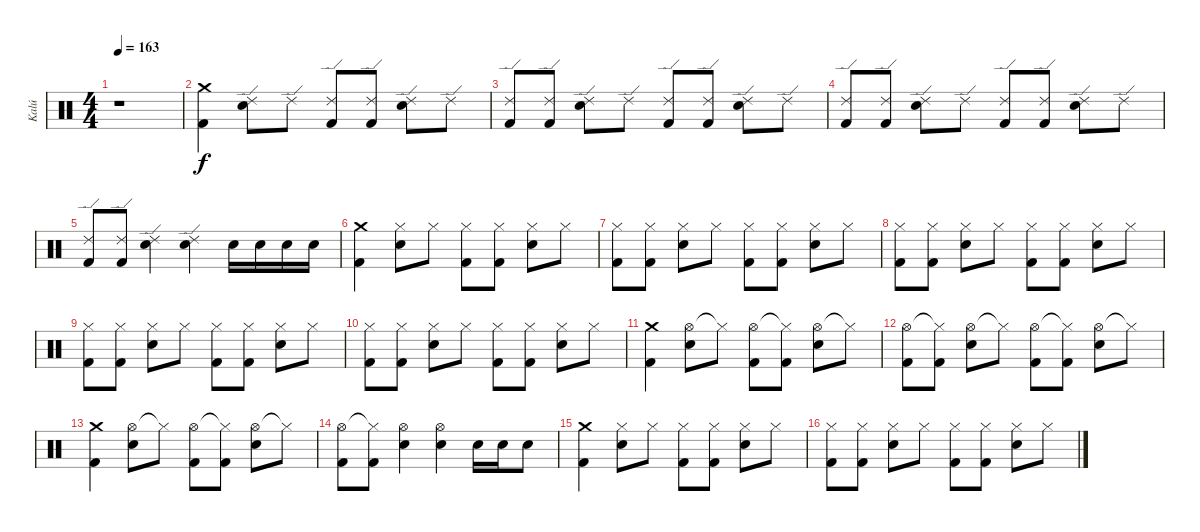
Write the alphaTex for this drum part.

\track ("Kalú" "Kalú") {instrument percussion}
\staff {score}
\articulation defaults
\ts (4 4)
\tempo 163
\clef neutral
\ks c
r.1{dy f} |
("Crash medium (hit)" "Kick (hit) 2").4 ("Ride (edge) 2" "Snare (hit) 2").8 "Ride (edge) 2".8 ("Ride (edge) 2" "Kick (hit) 2").8 ("Ride (edge) 2" "Kick (hit) 2").8 ("Ride (edge) 2" "Snare (hit) 2").8 "Ride (edge) 2".8 |
("Ride (edge) 2" "Kick (hit) 2").8 ("Ride (edge) 2" "Kick (hit) 2").8 ("Ride (edge) 2" "Snare (hit) 2").8 "Ride (edge) 2".8 ("Ride (edge) 2" "Kick (hit) 2").8 ("Ride (edge) 2" "Kick (hit) 2").8 ("Ride (edge) 2" "Snare (hit) 2").8 "Ride (edge) 2".8 |
("Ride (edge) 2" "Kick (hit) 2").8 ("Ride (edge) 2" "Kick (hit) 2").8 ("Ride (edge) 2" "Snare (hit) 2").8 "Ride (edge) 2".8 ("Ride (edge) 2" "Kick (hit) 2").8 ("Ride (edge) 2" "Kick (hit) 2").8 ("Ride (edge) 2" "Snare (hit) 2").8 "Ride (edge) 2".8 |
("Ride (edge) 2" "Kick (hit) 2").8 ("Ride (edge) 2" "Kick (hit) 2").8 ("Ride (edge) 2" "Snare (hit) 2").4 ("Ride (edge) 2" "Snare (hit) 2").4 "Snare (hit) 2".16 "Snare (hit) 2".16 "Snare (hit) 2".16 "Snare (hit) 2".16 |
("Crash medium (hit)" "Kick (hit) 2").4 ("Hi-Hat (closed)" "Snare (hit) 2").8 "Hi-Hat (closed)".8 ("Hi-Hat (closed)" "Kick (hit) 2").8 ("Hi-Hat (closed)" "Kick (hit) 2").8 ("Hi-Hat (closed)" "Snare (hit) 2").8 "Hi-Hat (closed)".8 |
("Hi-Hat (closed)" "Kick (hit) 2").8 ("Hi-Hat (closed)" "Kick (hit) 2").8 ("Hi-Hat (closed)" "Snare (hit) 2").8 "Hi-Hat (closed)".8 ("Hi-Hat (closed)" "Kick (hit) 2").8 ("Hi-Hat (closed)" "Kick (hit) 2").8 ("Hi-Hat (closed)" "Snare (hit) 2").8 "Hi-Hat (closed)".8 |
("Hi-Hat (closed)" "Kick (hit) 2").8 ("Hi-Hat (closed)" "Kick (hit) 2").8 ("Hi-Hat (closed)" "Snare (hit) 2").8 "Hi-Hat (closed)".8 ("Hi-Hat (closed)" "Kick (hit) 2").8 ("Hi-Hat (closed)" "Kick (hit) 2").8 ("Hi-Hat (closed)" "Snare (hit) 2").8 "Hi-Hat (closed)".8 |
("Hi-Hat (closed)" "Kick (hit) 2").8 ("Hi-Hat (closed)" "Kick (hit) 2").8 ("Hi-Hat (closed)" "Snare (hit) 2").8 "Hi-Hat (closed)".8 ("Hi-Hat (closed)" "Kick (hit) 2").8 ("Hi-Hat (closed)" "Kick (hit) 2").8 ("Hi-Hat (closed)" "Snare (hit) 2").8 "Hi-Hat (closed)".8 |
("Hi-Hat (closed)" "Kick (hit) 2").8 ("Hi-Hat (closed)" "Kick (hit) 2").8 ("Hi-Hat (closed)" "Snare (hit) 2").8 "Hi-Hat (closed)".8 ("Hi-Hat (closed)" "Kick (hit) 2").8 ("Hi-Hat (closed)" "Kick (hit) 2").8 ("Hi-Hat (closed)" "Snare (hit) 2").8 "Hi-Hat (closed)".8 |
("Crash medium (hit)" "Kick (hit) 2").4 ("Hi-Hat (open)" "Snare (hit) 2").8 "Hi-Hat (closed)"{t}.8 ("Hi-Hat (open)" "Kick (hit) 2").8 ("Hi-Hat (closed)"{t} "Kick (hit) 2").8 ("Hi-Hat (open)" "Snare (hit) 2").8 "Hi-Hat (closed)"{t}.8 |
("Hi-Hat (open)" "Kick (hit) 2").8 ("Hi-Hat (closed)"{t} "Kick (hit) 2").8 ("Hi-Hat (open)" "Snare (hit) 2").8 "Hi-Hat (closed)"{t}.8 ("Hi-Hat (open)" "Kick (hit) 2").8 ("Hi-Hat (closed)"{t} "Kick (hit) 2").8 ("Hi-Hat (open)" "Snare (hit) 2").8 "Hi-Hat (closed)"{t}.8 |
("Crash medium (hit)" "Kick (hit) 2").4 ("Hi-Hat (open)" "Snare (hit) 2").8 "Hi-Hat (closed)"{t}.8 ("Hi-Hat (open)" "Kick (hit) 2").8 ("Hi-Hat (closed)"{t} "Kick (hit) 2").8 ("Hi-Hat (open)" "Snare (hit) 2").8 "Hi-Hat (closed)"{t}.8 |
("Hi-Hat (open)" "Kick (hit) 2").8 ("Hi-Hat (closed)"{t} "Kick (hit) 2").8 ("Hi-Hat (open)" "Snare (hit) 2").4 ("Hi-Hat (open)" "Snare (hit) 2").4 "Snare (hit) 2".16 "Snare (hit) 2".16 "Snare (hit) 2".8 |
("Crash medium (hit)" "Kick (hit) 2").4 ("Hi-Hat (closed)" "Snare (hit) 2").8 "Hi-Hat (closed)".8 ("Hi-Hat (closed)" "Kick (hit) 2").8 ("Hi-Hat (closed)" "Kick (hit) 2").8 ("Hi-Hat (closed)" "Snare (hit) 2").8 "Hi-Hat (closed)".8 |
("Hi-Hat (closed)" "Kick (hit) 2").8 ("Hi-Hat (closed)" "Kick (hit) 2").8 ("Hi-Hat (closed)" "Snare (hit) 2").8 "Hi-Hat (closed)".8 ("Hi-Hat (closed)" "Kick (hit) 2").8 ("Hi-Hat (closed)" "Kick (hit) 2").8 ("Hi-Hat (closed)" "Snare (hit) 2").8 "Hi-Hat (closed)".8
